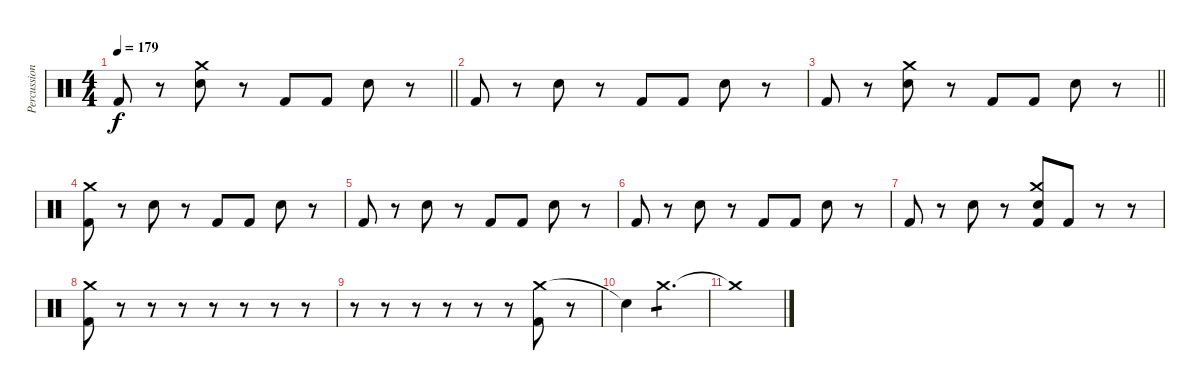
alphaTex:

\track ("Percussion" "Percussion") {instrument percussion}
\staff {score}
\articulation defaults
\ts (4 4)
\tempo 179
\clef neutral
\barLineRight lightlight
\ks c "Kick (hit) 2".8{dy f}
r.8 ("Crash medium (hit)" "Snare (hit) 2").8 r.8 "Kick (hit) 2".8 "Kick (hit) 2".8 "Snare (hit) 2".8 r.8 |
"Kick (hit) 2".8 r.8 "Snare (hit) 2".8 r.8 "Kick (hit) 2".8 "Kick (hit) 2".8 "Snare (hit) 2".8 r.8 |
\barLineRight lightlight "Kick (hit) 2".8
r.8 ("Crash medium (hit)" "Snare (hit) 2").8 r.8 "Kick (hit) 2".8 "Kick (hit) 2".8 "Snare (hit) 2".8 r.8 |
("Crash medium (hit)" "Kick (hit) 2").8 r.8 "Snare (hit) 2".8 r.8 "Kick (hit) 2".8 "Kick (hit) 2".8 "Snare (hit) 2".8 r.8 |
"Kick (hit) 2".8 r.8 "Snare (hit) 2".8 r.8 "Kick (hit) 2".8 "Kick (hit) 2".8 "Snare (hit) 2".8 r.8 |
"Kick (hit) 2".8 r.8 "Snare (hit) 2".8 r.8 "Kick (hit) 2".8 "Kick (hit) 2".8 "Snare (hit) 2".8 r.8 |
"Kick (hit) 2".8 r.8 "Snare (hit) 2".8 r.8 ("Crash medium (hit)" "Snare (hit) 2" "Kick (hit) 2").8 "Kick (hit) 2".8 r.8 r.8 |
("Crash medium (hit)" "Kick (hit) 2").8 r.8 r.8 r.8 r.8 r.8 r.8 r.8 |
r.8 r.8 r.8 r.8 r.8 r.8 ("Crash medium (hit)" "Kick (hit) 2").8 r.8 |
"Snare (hit)"{t}.4{volume 0} "Crash medium (hit)".2{d tp 1 volume 13} |
"Crash medium (hit)"{t}.1
